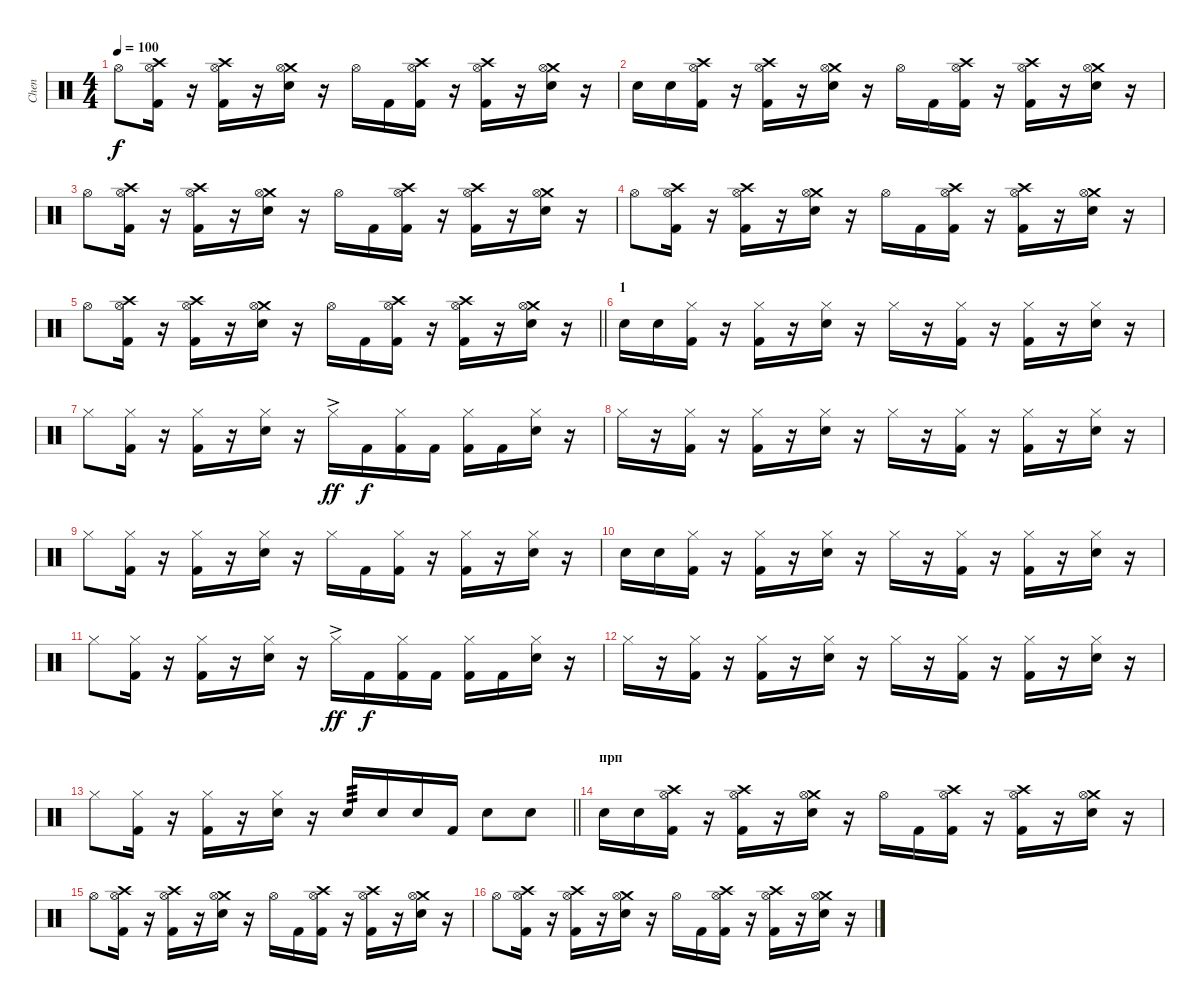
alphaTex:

\track ("Chen" "Chen") {instrument percussion}
\staff {score}
\articulation defaults
\ts (4 4)
\tempo 100
\clef neutral
\ks c "Hi-Hat (open)".8{dy f}
("Crash high (hit)" "Hi-Hat (open)" "Kick (hit) 2").16 r.16 ("Crash high (hit)" "Hi-Hat (open)" "Kick (hit) 2").16 r.16 ("Crash medium (hit)" "Hi-Hat (open)" "Electric Snare (hit)").16 r.16 "Hi-Hat (open)".16 "Kick (hit) 2".16 ("Crash high (hit)" "Hi-Hat (open)" "Kick (hit) 2").16 r.16 ("Crash high (hit)" "Hi-Hat (open)" "Kick (hit) 2").16 r.16 ("Crash medium (hit)" "Hi-Hat (open)" "Electric Snare (hit)").16 r.16 |
"Electric Snare (hit)".16 "Electric Snare (hit)".16 ("Crash high (hit)" "Hi-Hat (open)" "Kick (hit) 2").16 r.16 ("Crash high (hit)" "Hi-Hat (open)" "Kick (hit) 2").16 r.16 ("Crash medium (hit)" "Hi-Hat (open)" "Electric Snare (hit)").16 r.16 "Hi-Hat (open)".16 "Kick (hit) 2".16 ("Crash high (hit)" "Hi-Hat (open)" "Kick (hit) 2").16 r.16 ("Crash high (hit)" "Hi-Hat (open)" "Kick (hit) 2").16 r.16 ("Crash medium (hit)" "Hi-Hat (open)" "Electric Snare (hit)").16 r.16 |
"Hi-Hat (open)".8 ("Crash high (hit)" "Hi-Hat (open)" "Kick (hit) 2").16 r.16 ("Crash high (hit)" "Hi-Hat (open)" "Kick (hit) 2").16 r.16 ("Crash medium (hit)" "Hi-Hat (open)" "Electric Snare (hit)").16 r.16 "Hi-Hat (open)".16 "Kick (hit) 2".16 ("Crash high (hit)" "Hi-Hat (open)" "Kick (hit) 2").16 r.16 ("Crash high (hit)" "Hi-Hat (open)" "Kick (hit) 2").16 r.16 ("Crash medium (hit)" "Hi-Hat (open)" "Electric Snare (hit)").16 r.16 |
"Hi-Hat (open)".8 ("Crash high (hit)" "Hi-Hat (open)" "Kick (hit) 2").16 r.16 ("Crash high (hit)" "Hi-Hat (open)" "Kick (hit) 2").16 r.16 ("Crash medium (hit)" "Hi-Hat (open)" "Electric Snare (hit)").16 r.16 "Hi-Hat (open)".16 "Kick (hit) 2".16 ("Crash high (hit)" "Hi-Hat (open)" "Kick (hit) 2").16 r.16 ("Crash high (hit)" "Hi-Hat (open)" "Kick (hit) 2").16 r.16 ("Crash medium (hit)" "Hi-Hat (open)" "Electric Snare (hit)").16 r.16 |
\barLineRight lightlight "Hi-Hat (open)".8
("Crash high (hit)" "Hi-Hat (open)" "Kick (hit) 2").16 r.16 ("Crash high (hit)" "Hi-Hat (open)" "Kick (hit) 2").16 r.16 ("Crash medium (hit)" "Hi-Hat (open)" "Electric Snare (hit)").16 r.16 "Hi-Hat (open)".16 "Kick (hit) 2".16 ("Crash high (hit)" "Hi-Hat (open)" "Kick (hit) 2").16 r.16 ("Crash high (hit)" "Hi-Hat (open)" "Kick (hit) 2").16 r.16 ("Crash medium (hit)" "Hi-Hat (open)" "Electric Snare (hit)").16 r.16 |
\section ("" "1")
"Electric Snare (hit)".16 "Electric Snare (hit)".16 ("Hi-Hat (closed)" "Kick (hit) 2").16 r.16 ("Hi-Hat (closed)" "Kick (hit) 2").16 r.16 ("Hi-Hat (closed)" "Electric Snare (hit)").16 r.16 "Hi-Hat (closed)".16 r.16 ("Hi-Hat (closed)" "Kick (hit) 2").16 r.16 ("Hi-Hat (closed)" "Kick (hit) 2").16 r.16 ("Hi-Hat (closed)" "Electric Snare (hit)").16 r.16 |
"Hi-Hat (closed)".8 ("Hi-Hat (closed)" "Kick (hit) 2").16 r.16 ("Hi-Hat (closed)" "Kick (hit) 2").16 r.16 ("Hi-Hat (closed)" "Electric Snare (hit)").16 r.16 "Hi-Hat (closed)"{ac}.16{dy ff} "Kick (hit) 2".16{dy f} ("Hi-Hat (closed)" "Kick (hit) 2").16 "Kick (hit) 2".16 ("Hi-Hat (closed)" "Kick (hit) 2").16 "Kick (hit) 2".16 ("Hi-Hat (closed)" "Electric Snare (hit)").16 r.16 |
"Hi-Hat (closed)".16 r.16 ("Hi-Hat (closed)" "Kick (hit) 2").16 r.16 ("Hi-Hat (closed)" "Kick (hit) 2").16 r.16 ("Hi-Hat (closed)" "Electric Snare (hit)").16 r.16 "Hi-Hat (closed)".16 r.16 ("Hi-Hat (closed)" "Kick (hit) 2").16 r.16 ("Hi-Hat (closed)" "Kick (hit) 2").16 r.16 ("Hi-Hat (closed)" "Electric Snare (hit)").16 r.16 |
"Hi-Hat (closed)".8 ("Hi-Hat (closed)" "Kick (hit) 2").16 r.16 ("Hi-Hat (closed)" "Kick (hit) 2").16 r.16 ("Hi-Hat (closed)" "Electric Snare (hit)").16 r.16 "Hi-Hat (closed)".16 "Kick (hit) 2".16 ("Hi-Hat (closed)" "Kick (hit) 2").16 r.16 ("Hi-Hat (closed)" "Kick (hit) 2").16 r.16 ("Hi-Hat (closed)" "Electric Snare (hit)").16 r.16 |
"Electric Snare (hit)".16 "Electric Snare (hit)".16 ("Hi-Hat (closed)" "Kick (hit) 2").16 r.16 ("Hi-Hat (closed)" "Kick (hit) 2").16 r.16 ("Hi-Hat (closed)" "Electric Snare (hit)").16 r.16 "Hi-Hat (closed)".16 r.16 ("Hi-Hat (closed)" "Kick (hit) 2").16 r.16 ("Hi-Hat (closed)" "Kick (hit) 2").16 r.16 ("Hi-Hat (closed)" "Electric Snare (hit)").16 r.16 |
"Hi-Hat (closed)".8 ("Hi-Hat (closed)" "Kick (hit) 2").16 r.16 ("Hi-Hat (closed)" "Kick (hit) 2").16 r.16 ("Hi-Hat (closed)" "Electric Snare (hit)").16 r.16 "Hi-Hat (closed)"{ac}.16{dy ff} "Kick (hit) 2".16{dy f} ("Hi-Hat (closed)" "Kick (hit) 2").16 "Kick (hit) 2".16 ("Hi-Hat (closed)" "Kick (hit) 2").16 "Kick (hit) 2".16 ("Hi-Hat (closed)" "Electric Snare (hit)").16 r.16 |
"Hi-Hat (closed)".16 r.16 ("Hi-Hat (closed)" "Kick (hit) 2").16 r.16 ("Hi-Hat (closed)" "Kick (hit) 2").16 r.16 ("Hi-Hat (closed)" "Electric Snare (hit)").16 r.16 "Hi-Hat (closed)".16 r.16 ("Hi-Hat (closed)" "Kick (hit) 2").16 r.16 ("Hi-Hat (closed)" "Kick (hit) 2").16 r.16 ("Hi-Hat (closed)" "Electric Snare (hit)").16 r.16 |
\barLineRight lightlight "Hi-Hat (closed)".8
("Hi-Hat (closed)" "Kick (hit) 2").16 r.16 ("Hi-Hat (closed)" "Kick (hit) 2").16 r.16 ("Hi-Hat (closed)" "Electric Snare (hit)").16 r.16 "Electric Snare (hit)".16{tp 3} "Electric Snare (hit)".16 "Electric Snare (hit)".16 "Kick (hit) 2".16 "Electric Snare (hit)".8 "Electric Snare (hit)".8 |
\section ("" "прп")
"Electric Snare (hit)".16 "Electric Snare (hit)".16 ("Crash high (hit)" "Hi-Hat (open)" "Kick (hit) 2").16 r.16 ("Crash high (hit)" "Hi-Hat (open)" "Kick (hit) 2").16 r.16 ("Crash medium (hit)" "Hi-Hat (open)" "Electric Snare (hit)").16 r.16 "Hi-Hat (open)".16 "Kick (hit) 2".16 ("Crash high (hit)" "Hi-Hat (open)" "Kick (hit) 2").16 r.16 ("Crash high (hit)" "Hi-Hat (open)" "Kick (hit) 2").16 r.16 ("Crash medium (hit)" "Hi-Hat (open)" "Electric Snare (hit)").16 r.16 |
"Hi-Hat (open)".8 ("Crash high (hit)" "Hi-Hat (open)" "Kick (hit) 2").16 r.16 ("Crash high (hit)" "Hi-Hat (open)" "Kick (hit) 2").16 r.16 ("Crash medium (hit)" "Hi-Hat (open)" "Electric Snare (hit)").16 r.16 "Hi-Hat (open)".16 "Kick (hit) 2".16 ("Crash high (hit)" "Hi-Hat (open)" "Kick (hit) 2").16 r.16 ("Crash high (hit)" "Hi-Hat (open)" "Kick (hit) 2").16 r.16 ("Crash medium (hit)" "Hi-Hat (open)" "Electric Snare (hit)").16 r.16 |
"Hi-Hat (open)".8 ("Crash high (hit)" "Hi-Hat (open)" "Kick (hit) 2").16 r.16 ("Crash high (hit)" "Hi-Hat (open)" "Kick (hit) 2").16 r.16 ("Crash medium (hit)" "Hi-Hat (open)" "Electric Snare (hit)").16 r.16 "Hi-Hat (open)".16 "Kick (hit) 2".16 ("Crash high (hit)" "Hi-Hat (open)" "Kick (hit) 2").16 r.16 ("Crash high (hit)" "Hi-Hat (open)" "Kick (hit) 2").16 r.16 ("Crash medium (hit)" "Hi-Hat (open)" "Electric Snare (hit)").16 r.16
